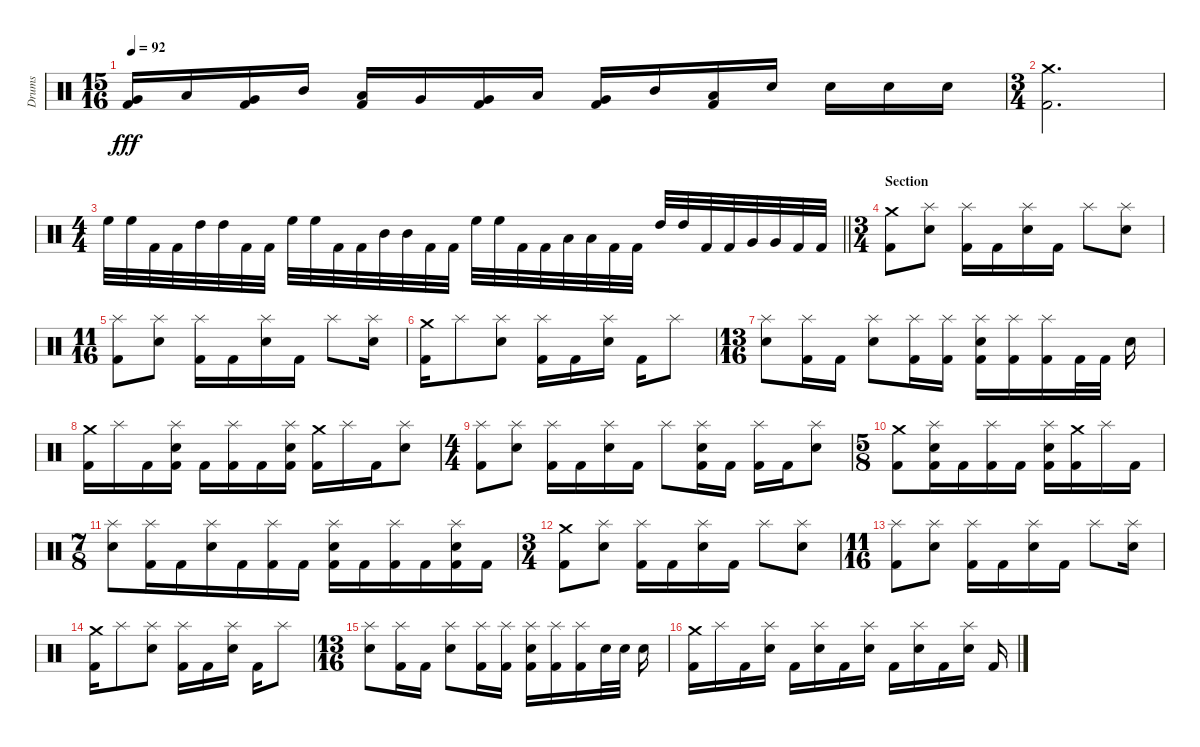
\track ("Drums" "Drums") {instrument percussion}
\staff {score}
\articulation defaults
\ts (15 16)
\tempo 92
\clef neutral
\ks c
("Very Low Tom (hit)" "Kick (hit) 2").16{dy fff} "Low Tom (hit)".16 ("Very Low Tom (hit)" "Kick (hit) 2").16 "Mid Tom (hit)".16 ("Low Tom (hit)" "Kick (hit) 2").16 "Very Low Tom (hit)".16 ("Very Low Tom (hit)" "Kick (hit) 2").16 "Low Tom (hit)".16 ("Very Low Tom (hit)" "Kick (hit) 2").16 "Mid Tom (hit)".16 ("Low Tom (hit)" "Kick (hit) 2").16 "Snare (hit) 2".16 "Snare (hit) 2".16 "Snare (hit) 2".16 "Snare (hit) 2".16 |
\ts (3 4)
("Crash medium (hit)" "Kick (hit) 2").2{d} |
\ts (4 4)
\barLineRight lightlight "High Floor Tom (hit)".32 "High Floor Tom (hit)".32 "Kick (hit) 2".32 "Kick (hit) 2".32 "High Tom (hit)".32 "High Tom (hit)".32 "Kick (hit) 2".32 "Kick (hit) 2".32 "High Floor Tom (hit)".32 "High Floor Tom (hit)".32 "Kick (hit) 2".32 "Kick (hit) 2".32 "Mid Tom (hit)".32 "Mid Tom (hit)".32 "Kick (hit) 2".32 "Kick (hit) 2".32 "High Floor Tom (hit)".32 "High Floor Tom (hit)".32 "Kick (hit) 2".32 "Kick (hit) 2".32 "Low Tom (hit)".32 "Low Tom (hit)".32 "Kick (hit) 2".32 "Kick (hit) 2".32 "High Tom (hit)".32 "High Tom (hit)".32 "Kick (hit) 2".32 "Kick (hit) 2".32 "Very Low Tom (hit)".32 "Very Low Tom (hit)".32 "Kick (hit) 2".32 "Kick (hit) 2".32
|
\ts (3 4)
\section ("" "Section")
("Crash medium (hit)" "Kick (hit) 2").8 ("Splash (hit)" "Snare (hit) 2").8 ("Splash (hit)" "Kick (hit) 2").16 "Kick (hit) 2".16 ("Splash (hit)" "Snare (hit) 2").16 "Kick (hit) 2".16 "Splash (hit)".8 ("Splash (hit)" "Snare (hit) 2").8 |
\ts (11 16)
("Splash (hit)" "Kick (hit) 2").8 ("Splash (hit)" "Snare (hit) 2").8 ("Splash (hit)" "Kick (hit) 2").16 "Kick (hit) 2".16 ("Splash (hit)" "Snare (hit) 2").16 "Kick (hit) 2".16 "Splash (hit)".8 ("Splash (hit)" "Snare (hit) 2").16 |
("Crash medium (hit)" "Kick (hit) 2").16 "Splash (hit)".8 ("Splash (hit)" "Snare (hit) 2").8 ("Splash (hit)" "Kick (hit) 2").16 "Kick (hit) 2".16 ("Splash (hit)" "Snare (hit) 2").16 "Kick (hit) 2".16 "Splash (hit)".8 |
\ts (13 16)
("Splash (hit)" "Snare (hit) 2").8 ("Splash (hit)" "Kick (hit) 2").16 "Kick (hit) 2".16 ("Splash (hit)" "Snare (hit) 2").8 ("Splash (hit)" "Kick (hit) 2").16 ("Splash (hit)" "Kick (hit) 2").16 ("Splash (hit)" "Snare (hit) 2" "Kick (hit) 2").16 ("Splash (hit)" "Kick (hit) 2").16 ("Splash (hit)" "Kick (hit) 2").16 "Kick (hit) 2".32 "Kick (hit) 2".32 "Snare (hit) 2".16 |
("Crash medium (hit)" "Kick (hit) 2").16 "Splash (hit)".16 "Kick (hit) 2".16 ("Splash (hit)" "Snare (hit) 2" "Kick (hit) 2").16 "Kick (hit) 2".16 ("Splash (hit)" "Kick (hit) 2").16 "Kick (hit) 2".16 ("Splash (hit)" "Snare (hit) 2" "Kick (hit) 2").16 ("Crash medium (hit)" "Kick (hit) 2").16 "Splash (hit)".16 "Kick (hit) 2".16 ("Splash (hit)" "Snare (hit) 2").8 |
\ts (4 4)
("Splash (hit)" "Kick (hit) 2").8 ("Splash (hit)" "Snare (hit) 2").8 ("Splash (hit)" "Kick (hit) 2").16 "Kick (hit) 2".16 ("Splash (hit)" "Snare (hit) 2").16 "Kick (hit) 2".16 "Splash (hit)".8 ("Splash (hit)" "Snare (hit) 2" "Kick (hit) 2").16 "Kick (hit) 2".16 ("Splash (hit)" "Kick (hit) 2").16 "Kick (hit) 2".16 ("Splash (hit)" "Snare (hit) 2").8 |
\ts (5 8)
("Crash medium (hit)" "Kick (hit) 2").8 ("Splash (hit)" "Snare (hit) 2" "Kick (hit) 2").16 "Kick (hit) 2".16 ("Splash (hit)" "Kick (hit) 2").16 "Kick (hit) 2".16 ("Splash (hit)" "Snare (hit) 2" "Kick (hit) 2").16 ("Crash medium (hit)" "Kick (hit) 2").16 "Splash (hit)".16 "Kick (hit) 2".16 |
\ts (7 8)
("Splash (hit)" "Snare (hit) 2").8 ("Splash (hit)" "Kick (hit) 2").16 "Kick (hit) 2".16 ("Splash (hit)" "Snare (hit) 2").16 "Kick (hit) 2".16 ("Splash (hit)" "Kick (hit) 2").16 "Kick (hit) 2".16 ("Splash (hit)" "Snare (hit) 2" "Kick (hit) 2").16 "Kick (hit) 2".16 ("Splash (hit)" "Kick (hit) 2").16 "Kick (hit) 2".16 ("Splash (hit)" "Snare (hit) 2" "Kick (hit) 2").16 "Kick (hit) 2".16 |
\ts (3 4)
("Crash medium (hit)" "Kick (hit) 2").8 ("Splash (hit)" "Snare (hit) 2").8 ("Splash (hit)" "Kick (hit) 2").16 "Kick (hit) 2".16 ("Splash (hit)" "Snare (hit) 2").16 "Kick (hit) 2".16 "Splash (hit)".8 ("Splash (hit)" "Snare (hit) 2").8 |
\ts (11 16)
("Splash (hit)" "Kick (hit) 2").8 ("Splash (hit)" "Snare (hit) 2").8 ("Splash (hit)" "Kick (hit) 2").16 "Kick (hit) 2".16 ("Splash (hit)" "Snare (hit) 2").16 "Kick (hit) 2".16 "Splash (hit)".8 ("Splash (hit)" "Snare (hit) 2").16 |
("Crash medium (hit)" "Kick (hit) 2").16 "Splash (hit)".8 ("Splash (hit)" "Snare (hit) 2").8 ("Splash (hit)" "Kick (hit) 2").16 "Kick (hit) 2".16 ("Splash (hit)" "Snare (hit) 2").16 "Kick (hit) 2".16 "Splash (hit)".8 |
\ts (13 16)
("Splash (hit)" "Snare (hit) 2").8 ("Splash (hit)" "Kick (hit) 2").16 "Kick (hit) 2".16 ("Splash (hit)" "Snare (hit) 2").8 ("Splash (hit)" "Kick (hit) 2").16 ("Splash (hit)" "Kick (hit) 2").16 ("Splash (hit)" "Snare (hit) 2" "Kick (hit) 2").16 ("Splash (hit)" "Kick (hit) 2").16 ("Splash (hit)" "Kick (hit) 2").16 "Snare (hit) 2".32 "Snare (hit) 2".32 "Snare (hit) 2".16 |
("Crash medium (hit)" "Kick (hit) 2").16 "Splash (hit)".16 "Kick (hit) 2".16 ("Splash (hit)" "Snare (hit) 2").16 "Kick (hit) 2".16 ("Splash (hit)" "Snare (hit) 2").16 "Kick (hit) 2".16 ("Splash (hit)" "Snare (hit) 2").16 "Kick (hit) 2".16 ("Splash (hit)" "Snare (hit) 2").16 "Kick (hit) 2".16 ("Splash (hit)" "Snare (hit) 2").16 "Kick (hit) 2".16
